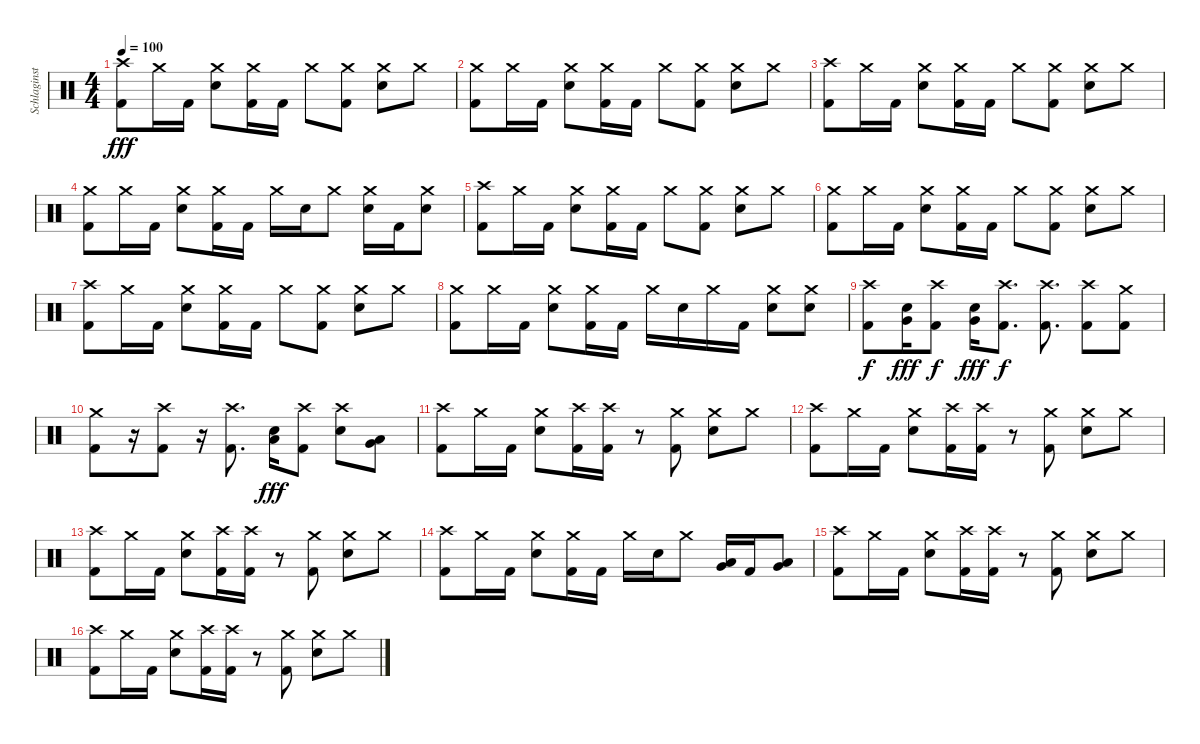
\track ("Schlaginstrumente - Auswahl" "Schlaginst") {instrument percussion}
\staff {score}
\articulation defaults
\ts (4 4)
\tempo 100
\clef neutral
\ks c
("Crash high (hit)" "Kick (hit) 2").8{dy fff} "Crash medium (hit)".16 "Kick (hit) 2".16 ("Crash medium (hit)" "Snare (hit) 2").8 ("Crash medium (hit)" "Kick (hit) 2").16 "Kick (hit) 2".16 "Crash medium (hit)".8 ("Crash medium (hit)" "Kick (hit) 2").8 ("Crash medium (hit)" "Snare (hit) 2").8 "Crash medium (hit)".8 |
("Crash medium (hit)" "Kick (hit) 2").8 "Crash medium (hit)".16 "Kick (hit) 2".16 ("Crash medium (hit)" "Snare (hit) 2").8 ("Crash medium (hit)" "Kick (hit) 2").16 "Kick (hit) 2".16 "Crash medium (hit)".8 ("Crash medium (hit)" "Kick (hit) 2").8 ("Crash medium (hit)" "Snare (hit) 2").8 "Crash medium (hit)".8 |
("Crash high (hit)" "Kick (hit) 2").8 "Crash medium (hit)".16 "Kick (hit) 2".16 ("Crash medium (hit)" "Snare (hit) 2").8 ("Crash medium (hit)" "Kick (hit) 2").16 "Kick (hit) 2".16 "Crash medium (hit)".8 ("Crash medium (hit)" "Kick (hit) 2").8 ("Crash medium (hit)" "Snare (hit) 2").8 "Crash medium (hit)".8 |
("Crash medium (hit)" "Kick (hit) 2").8 "Crash medium (hit)".16 "Kick (hit) 2".16 ("Crash medium (hit)" "Snare (hit) 2").8 ("Crash medium (hit)" "Kick (hit) 2").16 "Kick (hit) 2".16 "Crash medium (hit)".16 "Snare (hit) 2".16 "Crash medium (hit)".8 ("Crash medium (hit)" "Snare (hit) 2").16 "Kick (hit) 2".16 ("Crash medium (hit)" "Snare (hit) 2").8 |
("Crash high (hit)" "Kick (hit) 2").8 "Crash medium (hit)".16 "Kick (hit) 2".16 ("Crash medium (hit)" "Snare (hit) 2").8 ("Crash medium (hit)" "Kick (hit) 2").16 "Kick (hit) 2".16 "Crash medium (hit)".8 ("Crash medium (hit)" "Kick (hit) 2").8 ("Crash medium (hit)" "Snare (hit) 2").8 "Crash medium (hit)".8 |
("Crash medium (hit)" "Kick (hit) 2").8 "Crash medium (hit)".16 "Kick (hit) 2".16 ("Crash medium (hit)" "Snare (hit) 2").8 ("Crash medium (hit)" "Kick (hit) 2").16 "Kick (hit) 2".16 "Crash medium (hit)".8 ("Crash medium (hit)" "Kick (hit) 2").8 ("Crash medium (hit)" "Snare (hit) 2").8 "Crash medium (hit)".8 |
("Crash high (hit)" "Kick (hit) 2").8 "Crash medium (hit)".16 "Kick (hit) 2".16 ("Crash medium (hit)" "Snare (hit) 2").8 ("Crash medium (hit)" "Kick (hit) 2").16 "Kick (hit) 2".16 "Crash medium (hit)".8 ("Crash medium (hit)" "Kick (hit) 2").8 ("Crash medium (hit)" "Snare (hit) 2").8 "Crash medium (hit)".8 |
("Crash medium (hit)" "Kick (hit) 2").8 "Crash medium (hit)".16 "Kick (hit) 2".16 ("Crash medium (hit)" "Snare (hit) 2").8 ("Crash medium (hit)" "Kick (hit) 2").16 "Kick (hit) 2".16 "Crash medium (hit)".16 "Snare (hit) 2".16 "Crash medium (hit)".16 "Kick (hit) 2".16 ("Crash medium (hit)" "Snare (hit) 2").8 ("Crash medium (hit)" "Snare (hit) 2").8 |
("Crash high (hit)" "Kick (hit) 2").8{dy f} ("Very Low Tom (hit)" "Snare (hit) 2").16{dy fff} ("Crash high (hit)" "Kick (hit) 2").8{dy f} ("Very Low Tom (hit)" "Snare (hit) 2").16{dy fff} ("Crash high (hit)" "Kick (hit) 2").8{d dy f} ("Crash high (hit)" "Kick (hit) 2").8{d} ("Crash high (hit)" "Kick (hit) 2").8 ("Crash medium (hit)" "Kick (hit) 2").8 |
("Crash medium (hit)" "Kick (hit) 2").8 r.16 ("Crash high (hit)" "Kick (hit) 2").8 r.16 ("Crash high (hit)" "Kick (hit) 2").8{d} ("Low Floor Tom (hit)" "Snare (hit) 2").16{dy fff} ("Crash high (hit)" "Kick (hit) 2").8 ("Crash high (hit)" "Snare (hit) 2").8 ("Low Floor Tom (hit)" "Very Low Tom (hit)").8 |
("Crash high (hit)" "Kick (hit) 2").8 "Crash medium (hit)".16 "Kick (hit) 2".16 ("Crash medium (hit)" "Snare (hit) 2").8 ("Crash high (hit)" "Kick (hit) 2").16 ("Crash high (hit)" "Kick (hit) 2").16 r.8 ("Crash medium (hit)" "Kick (hit) 2").8 ("Crash medium (hit)" "Snare (hit) 2").8 "Crash medium (hit)".8 |
("Crash high (hit)" "Kick (hit) 2").8 "Crash medium (hit)".16 "Kick (hit) 2".16 ("Crash medium (hit)" "Snare (hit) 2").8 ("Crash high (hit)" "Kick (hit) 2").16 ("Crash high (hit)" "Kick (hit) 2").16 r.8 ("Crash medium (hit)" "Kick (hit) 2").8 ("Crash medium (hit)" "Snare (hit) 2").8 "Crash medium (hit)".8 |
("Crash high (hit)" "Kick (hit) 2").8 "Crash medium (hit)".16 "Kick (hit) 2".16 ("Crash medium (hit)" "Snare (hit) 2").8 ("Crash high (hit)" "Kick (hit) 2").16 ("Crash high (hit)" "Kick (hit) 2").16 r.8 ("Crash medium (hit)" "Kick (hit) 2").8 ("Crash medium (hit)" "Snare (hit) 2").8 "Crash medium (hit)".8 |
("Crash high (hit)" "Kick (hit) 2").8 "Crash medium (hit)".16 "Kick (hit) 2".16 ("Crash medium (hit)" "Snare (hit) 2").8 ("Crash medium (hit)" "Kick (hit) 2").16 "Kick (hit) 2".16 "Crash medium (hit)".16 "Snare (hit) 2".16 "Crash medium (hit)".8 ("Very Low Tom (hit)" "Low Tom (hit)").16 "Kick (hit) 2".16 ("Very Low Tom (hit)" "Low Tom (hit)").8 |
("Crash high (hit)" "Kick (hit) 2").8 "Crash medium (hit)".16 "Kick (hit) 2".16 ("Crash medium (hit)" "Snare (hit) 2").8 ("Crash high (hit)" "Kick (hit) 2").16 ("Crash high (hit)" "Kick (hit) 2").16 r.8 ("Crash medium (hit)" "Kick (hit) 2").8 ("Crash medium (hit)" "Snare (hit) 2").8 "Crash medium (hit)".8 |
("Crash high (hit)" "Kick (hit) 2").8 "Crash medium (hit)".16 "Kick (hit) 2".16 ("Crash medium (hit)" "Snare (hit) 2").8 ("Crash high (hit)" "Kick (hit) 2").16 ("Crash high (hit)" "Kick (hit) 2").16 r.8 ("Crash medium (hit)" "Kick (hit) 2").8 ("Crash medium (hit)" "Snare (hit) 2").8 "Crash medium (hit)".8
